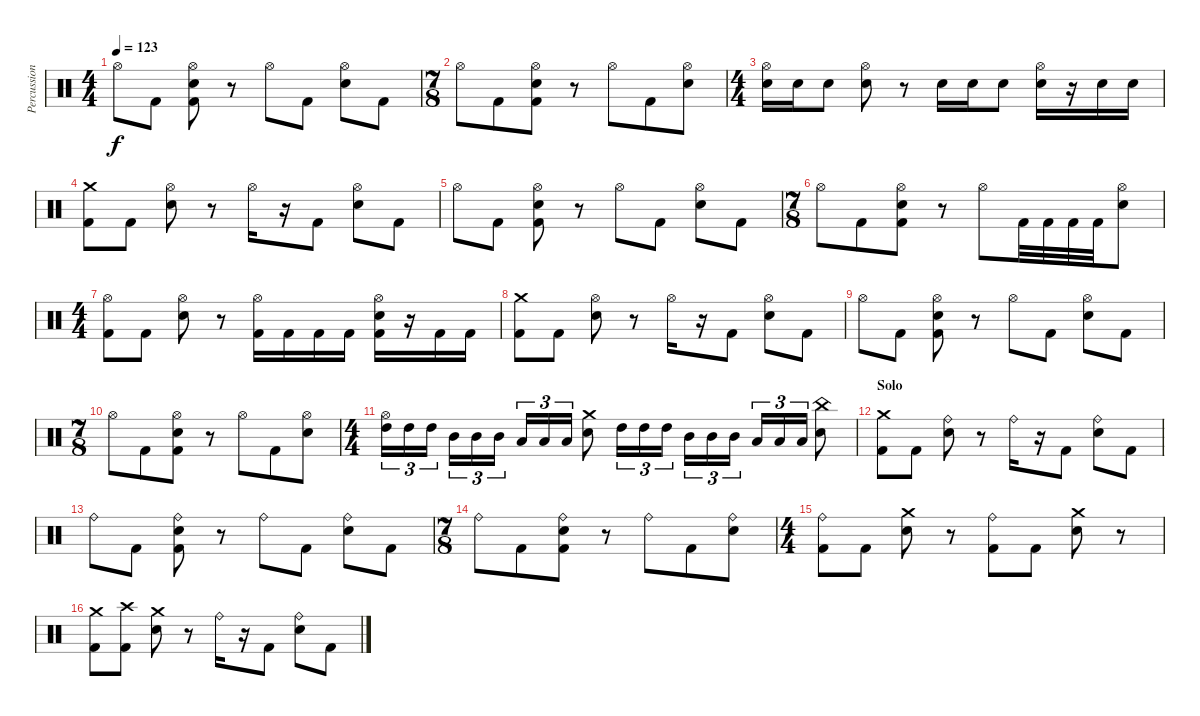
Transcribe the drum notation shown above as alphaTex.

\track ("Percussions" "Percussion") {instrument percussion}
\staff {score}
\articulation defaults
\ts (4 4)
\tempo 123
\clef neutral
\ks c "Hi-Hat (open)".8{dy f} "Kick (hit) 2".8
("Hi-Hat (open)" "Electric Snare (hit)" "Kick (hit) 2").8 r.8 "Hi-Hat (open)".8 "Kick (hit) 2".8 ("Hi-Hat (open)" "Electric Snare (hit)").8 "Kick (hit) 2".8 |
\ts (7 8)
"Hi-Hat (open)".8 "Kick (hit) 2".8 ("Hi-Hat (open)" "Electric Snare (hit)" "Kick (hit) 2").8 r.8 "Hi-Hat (open)".8 "Kick (hit) 2".8 ("Hi-Hat (open)" "Electric Snare (hit)").8 |
\ts (4 4)
("Hi-Hat (open)" "Electric Snare (hit)").16 "Electric Snare (hit)".16 "Electric Snare (hit)".8 ("Hi-Hat (open)" "Electric Snare (hit)").8 r.8 "Electric Snare (hit)".16 "Electric Snare (hit)".16 "Electric Snare (hit)".8 ("Hi-Hat (open)" "Electric Snare (hit)").16 r.16 "Electric Snare (hit)".16 "Electric Snare (hit)".16 |
("Crash medium (hit)" "Kick (hit) 2").8 "Kick (hit) 2".8 ("Hi-Hat (open)" "Electric Snare (hit)").8 r.8 "Hi-Hat (open)".16 r.16 "Kick (hit) 2".8 ("Hi-Hat (open)" "Electric Snare (hit)").8 "Kick (hit) 2".8 |
"Hi-Hat (open)".8 "Kick (hit) 2".8 ("Hi-Hat (open)" "Electric Snare (hit)" "Kick (hit) 2").8 r.8 "Hi-Hat (open)".8 "Kick (hit) 2".8 ("Hi-Hat (open)" "Electric Snare (hit)").8 "Kick (hit) 2".8 |
\ts (7 8)
"Hi-Hat (open)".8 "Kick (hit) 2".8 ("Hi-Hat (open)" "Electric Snare (hit)" "Kick (hit) 2").8 r.8 "Hi-Hat (open)".8 "Kick (hit) 2".32 "Kick (hit) 2".32 "Kick (hit) 2".32 "Kick (hit) 2".32 ("Hi-Hat (open)" "Electric Snare (hit)").8 |
\ts (4 4)
("Hi-Hat (open)" "Kick (hit) 2").8 "Kick (hit) 2".8 ("Hi-Hat (open)" "Electric Snare (hit)").8 r.8 ("Hi-Hat (open)" "Kick (hit) 2").16 "Kick (hit) 2".16 "Kick (hit) 2".16 "Kick (hit) 2".16 ("Hi-Hat (open)" "Electric Snare (hit)" "Kick (hit) 2").16 r.16 "Kick (hit) 2".16 "Kick (hit) 2".16 |
("Crash medium (hit)" "Kick (hit) 2").8 "Kick (hit) 2".8 ("Hi-Hat (open)" "Electric Snare (hit)").8 r.8 "Hi-Hat (open)".16 r.16 "Kick (hit) 2".8 ("Hi-Hat (open)" "Electric Snare (hit)").8 "Kick (hit) 2".8 |
"Hi-Hat (open)".8 "Kick (hit) 2".8 ("Hi-Hat (open)" "Electric Snare (hit)" "Kick (hit) 2").8 r.8 "Hi-Hat (open)".8 "Kick (hit) 2".8 ("Hi-Hat (open)" "Electric Snare (hit)").8 "Kick (hit) 2".8 |
\ts (7 8)
"Hi-Hat (open)".8 "Kick (hit) 2".8 ("Hi-Hat (open)" "Electric Snare (hit)" "Kick (hit) 2").8 r.8 "Hi-Hat (open)".8 "Kick (hit) 2".8 ("Hi-Hat (open)" "Electric Snare (hit)").8 |
\ts (4 4)
("Hi-Hat (open)" "High Tom (hit)").16{tu (3 2)} "High Tom (hit)".16{tu (3 2)} "High Tom (hit)".16{tu (3 2)} "Mid Tom (hit)".16{tu (3 2)} "Mid Tom (hit)".16{tu (3 2)} "Mid Tom (hit)".16{tu (3 2)} "Low Tom (hit)".16{tu (3 2)} "Low Tom (hit)".16{tu (3 2)} "Low Tom (hit)".16{tu (3 2)} ("Crash medium (hit)" "Electric Snare (hit)").8 "High Tom (hit)".16{tu (3 2)} "High Tom (hit)".16{tu (3 2)} "High Tom (hit)".16{tu (3 2)} "Mid Tom (hit)".16{tu (3 2)} "Mid Tom (hit)".16{tu (3 2)} "Mid Tom (hit)".16{tu (3 2)} "Low Tom (hit)".16{tu (3 2)} "Low Tom (hit)".16{tu (3 2)} "Low Tom (hit)".16{tu (3 2)} ("China (hit)" "Electric Snare (hit)").8 |
\section ("" "Solo")
("Crash medium (hit)" "Kick (hit) 2").8 "Kick (hit) 2".8 ("Ride (bell)" "Electric Snare (hit)").8 r.8 "Ride (bell)".16 r.16 "Kick (hit) 2".8 ("Ride (bell)" "Electric Snare (hit)").8 "Kick (hit) 2".8 |
"Ride (bell)".8 "Kick (hit) 2".8 ("Ride (bell)" "Electric Snare (hit)" "Kick (hit) 2").8 r.8 "Ride (bell)".8 "Kick (hit) 2".8 ("Ride (bell)" "Electric Snare (hit)").8 "Kick (hit) 2".8 |
\ts (7 8)
"Ride (bell)".8 "Kick (hit) 2".8 ("Ride (bell)" "Electric Snare (hit)" "Kick (hit) 2").8 r.8 "Ride (bell)".8 "Kick (hit) 2".8 ("Ride (bell)" "Electric Snare (hit)").8 |
\ts (4 4)
("Ride (bell)" "Kick (hit) 2").8 "Kick (hit) 2".8 ("Crash medium (hit)" "Electric Snare (hit)").8 r.8 ("Ride (bell)" "Kick (hit) 2").8 "Kick (hit) 2".8 ("Crash medium (hit)" "Electric Snare (hit)").8 r.8 |
("Crash medium (hit)" "Kick (hit) 2").8 ("Crash high (hit)" "Kick (hit) 2").8 ("Crash medium (hit)" "Electric Snare (hit)").8 r.8 "Ride (bell)".16 r.16 "Kick (hit) 2".8 ("Ride (bell)" "Electric Snare (hit)").8 "Kick (hit) 2".8
